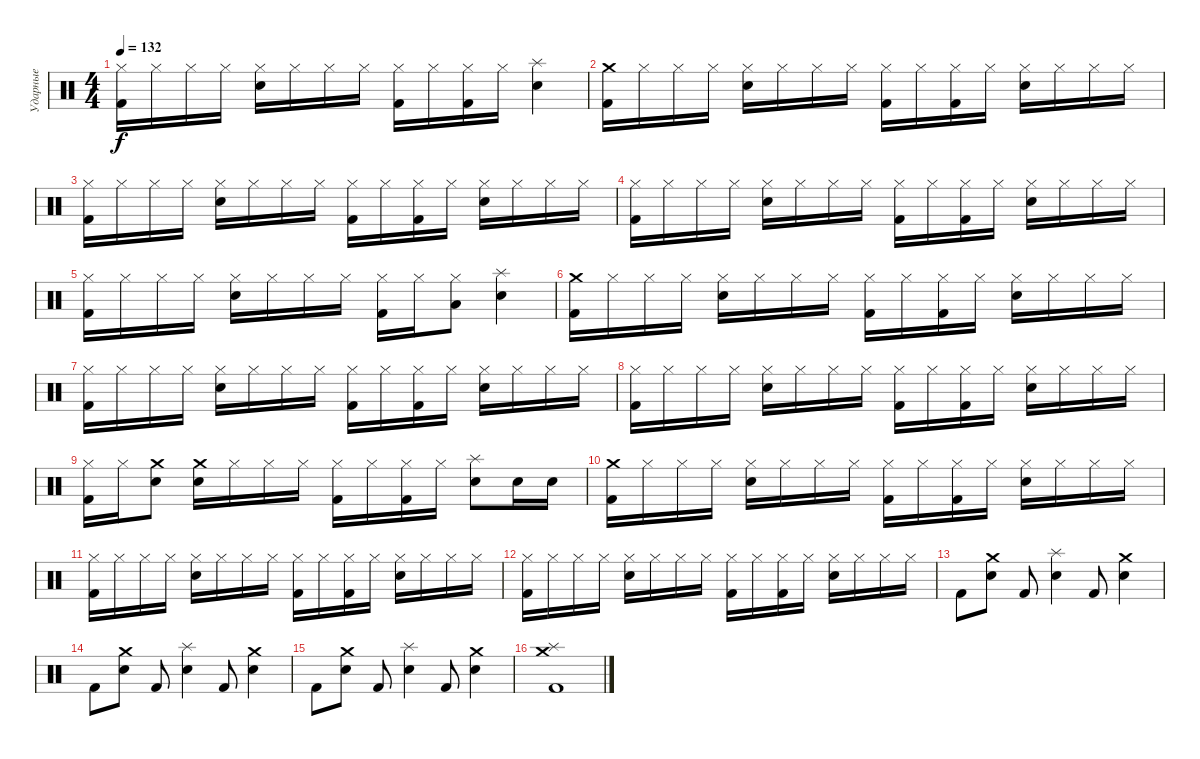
\track ("Ударные" "Ударные") {instrument percussion}
\staff {score}
\articulation defaults
\ts (4 4)
\tempo 132
\clef neutral
\ks c
("Hi-Hat (closed)" "Kick (hit) 2").16{dy f} "Hi-Hat (closed)".16 "Hi-Hat (closed)".16 "Hi-Hat (closed)".16 ("Hi-Hat (closed)" "Electric Snare (hit)").16 "Hi-Hat (closed)".16 "Hi-Hat (closed)".16 "Hi-Hat (closed)".16 ("Hi-Hat (closed)" "Kick (hit) 2").16 "Hi-Hat (closed)".16 ("Hi-Hat (closed)" "Kick (hit) 2").16 "Hi-Hat (closed)".16 ("Splash (hit)" "Electric Snare (hit)").4 |
("Crash medium (hit)" "Kick (hit) 2").16 "Hi-Hat (closed)".16 "Hi-Hat (closed)".16 "Hi-Hat (closed)".16 ("Hi-Hat (closed)" "Electric Snare (hit)").16 "Hi-Hat (closed)".16 "Hi-Hat (closed)".16 "Hi-Hat (closed)".16 ("Hi-Hat (closed)" "Kick (hit) 2").16 "Hi-Hat (closed)".16 ("Hi-Hat (closed)" "Kick (hit) 2").16 "Hi-Hat (closed)".16 ("Hi-Hat (closed)" "Electric Snare (hit)").16 "Hi-Hat (closed)".16 "Hi-Hat (closed)".16 "Hi-Hat (closed)".16 |
("Hi-Hat (closed)" "Kick (hit) 2").16 "Hi-Hat (closed)".16 "Hi-Hat (closed)".16 "Hi-Hat (closed)".16 ("Hi-Hat (closed)" "Electric Snare (hit)").16 "Hi-Hat (closed)".16 "Hi-Hat (closed)".16 "Hi-Hat (closed)".16 ("Hi-Hat (closed)" "Kick (hit) 2").16 "Hi-Hat (closed)".16 ("Hi-Hat (closed)" "Kick (hit) 2").16 "Hi-Hat (closed)".16 ("Hi-Hat (closed)" "Electric Snare (hit)").16 "Hi-Hat (closed)".16 "Hi-Hat (closed)".16 "Hi-Hat (closed)".16 |
("Hi-Hat (closed)" "Kick (hit) 2").16 "Hi-Hat (closed)".16 "Hi-Hat (closed)".16 "Hi-Hat (closed)".16 ("Hi-Hat (closed)" "Electric Snare (hit)").16 "Hi-Hat (closed)".16 "Hi-Hat (closed)".16 "Hi-Hat (closed)".16 ("Hi-Hat (closed)" "Kick (hit) 2").16 "Hi-Hat (closed)".16 ("Hi-Hat (closed)" "Kick (hit) 2").16 "Hi-Hat (closed)".16 ("Hi-Hat (closed)" "Electric Snare (hit)").16 "Hi-Hat (closed)".16 "Hi-Hat (closed)".16 "Hi-Hat (closed)".16 |
("Hi-Hat (closed)" "Kick (hit) 2").16 "Hi-Hat (closed)".16 "Hi-Hat (closed)".16 "Hi-Hat (closed)".16 ("Hi-Hat (closed)" "Electric Snare (hit)").16 "Hi-Hat (closed)".16 "Hi-Hat (closed)".16 "Hi-Hat (closed)".16 ("Hi-Hat (closed)" "Kick (hit) 2").16 "Hi-Hat (closed)".16 ("Hi-Hat (closed)" "Low Tom (hit)").8 ("Splash (hit)" "Electric Snare (hit)").4 |
("Crash medium (hit)" "Kick (hit) 2").16 "Hi-Hat (closed)".16 "Hi-Hat (closed)".16 "Hi-Hat (closed)".16 ("Hi-Hat (closed)" "Electric Snare (hit)").16 "Hi-Hat (closed)".16 "Hi-Hat (closed)".16 "Hi-Hat (closed)".16 ("Hi-Hat (closed)" "Kick (hit) 2").16 "Hi-Hat (closed)".16 ("Hi-Hat (closed)" "Kick (hit) 2").16 "Hi-Hat (closed)".16 ("Hi-Hat (closed)" "Electric Snare (hit)").16 "Hi-Hat (closed)".16 "Hi-Hat (closed)".16 "Hi-Hat (closed)".16 |
("Hi-Hat (closed)" "Kick (hit) 2").16 "Hi-Hat (closed)".16 "Hi-Hat (closed)".16 "Hi-Hat (closed)".16 ("Hi-Hat (closed)" "Electric Snare (hit)").16 "Hi-Hat (closed)".16 "Hi-Hat (closed)".16 "Hi-Hat (closed)".16 ("Hi-Hat (closed)" "Kick (hit) 2").16 "Hi-Hat (closed)".16 ("Hi-Hat (closed)" "Kick (hit) 2").16 "Hi-Hat (closed)".16 ("Hi-Hat (closed)" "Electric Snare (hit)").16 "Hi-Hat (closed)".16 "Hi-Hat (closed)".16 "Hi-Hat (closed)".16 |
("Hi-Hat (closed)" "Kick (hit) 2").16 "Hi-Hat (closed)".16 "Hi-Hat (closed)".16 "Hi-Hat (closed)".16 ("Hi-Hat (closed)" "Electric Snare (hit)").16 "Hi-Hat (closed)".16 "Hi-Hat (closed)".16 "Hi-Hat (closed)".16 ("Hi-Hat (closed)" "Kick (hit) 2").16 "Hi-Hat (closed)".16 ("Hi-Hat (closed)" "Kick (hit) 2").16 "Hi-Hat (closed)".16 ("Hi-Hat (closed)" "Electric Snare (hit)").16 "Hi-Hat (closed)".16 "Hi-Hat (closed)".16 "Hi-Hat (closed)".16 |
("Hi-Hat (closed)" "Kick (hit) 2").16 "Hi-Hat (closed)".16 ("Crash medium (hit)" "Electric Snare (hit)").8 ("Crash medium (hit)" "Electric Snare (hit)").16 "Hi-Hat (closed)".16 "Hi-Hat (closed)".16 "Hi-Hat (closed)".16 ("Hi-Hat (closed)" "Kick (hit) 2").16 "Hi-Hat (closed)".16 ("Hi-Hat (closed)" "Kick (hit) 2").16 "Hi-Hat (closed)".16 ("Splash (hit)" "Electric Snare (hit)").8 "Electric Snare (hit)".16 "Electric Snare (hit)".16 |
("Crash medium (hit)" "Kick (hit) 2").16 "Hi-Hat (closed)".16 "Hi-Hat (closed)".16 "Hi-Hat (closed)".16 ("Hi-Hat (closed)" "Electric Snare (hit)").16 "Hi-Hat (closed)".16 "Hi-Hat (closed)".16 "Hi-Hat (closed)".16 ("Hi-Hat (closed)" "Kick (hit) 2").16 "Hi-Hat (closed)".16 ("Hi-Hat (closed)" "Kick (hit) 2").16 "Hi-Hat (closed)".16 ("Hi-Hat (closed)" "Electric Snare (hit)").16 "Hi-Hat (closed)".16 "Hi-Hat (closed)".16 "Hi-Hat (closed)".16 |
("Hi-Hat (closed)" "Kick (hit) 2").16 "Hi-Hat (closed)".16 "Hi-Hat (closed)".16 "Hi-Hat (closed)".16 ("Hi-Hat (closed)" "Electric Snare (hit)").16 "Hi-Hat (closed)".16 "Hi-Hat (closed)".16 "Hi-Hat (closed)".16 ("Hi-Hat (closed)" "Kick (hit) 2").16 "Hi-Hat (closed)".16 ("Hi-Hat (closed)" "Kick (hit) 2").16 "Hi-Hat (closed)".16 ("Hi-Hat (closed)" "Electric Snare (hit)").16 "Hi-Hat (closed)".16 "Hi-Hat (closed)".16 "Hi-Hat (closed)".16 |
("Hi-Hat (closed)" "Kick (hit) 2").16 "Hi-Hat (closed)".16 "Hi-Hat (closed)".16 "Hi-Hat (closed)".16 ("Hi-Hat (closed)" "Electric Snare (hit)").16 "Hi-Hat (closed)".16 "Hi-Hat (closed)".16 "Hi-Hat (closed)".16 ("Hi-Hat (closed)" "Kick (hit) 2").16 "Hi-Hat (closed)".16 ("Hi-Hat (closed)" "Kick (hit) 2").16 "Hi-Hat (closed)".16 ("Hi-Hat (closed)" "Electric Snare (hit)").16 "Hi-Hat (closed)".16 "Hi-Hat (closed)".16 "Hi-Hat (closed)".16 |
"Kick (hit) 2".8 ("Crash medium (hit)" "Electric Snare (hit)").8 "Kick (hit) 2".8 ("Splash (hit)" "Electric Snare (hit)").4 "Kick (hit) 2".8 ("Crash medium (hit)" "Electric Snare (hit)").4 |
"Kick (hit) 2".8 ("Crash medium (hit)" "Electric Snare (hit)").8 "Kick (hit) 2".8 ("Splash (hit)" "Electric Snare (hit)").4 "Kick (hit) 2".8 ("Crash medium (hit)" "Electric Snare (hit)").4 |
"Kick (hit) 2".8 ("Crash medium (hit)" "Electric Snare (hit)").8 "Kick (hit) 2".8 ("Splash (hit)" "Electric Snare (hit)").4 "Kick (hit) 2".8 ("Crash medium (hit)" "Electric Snare (hit)").4 |
("Crash medium (hit)" "Splash (hit)" "Kick (hit) 2").1
